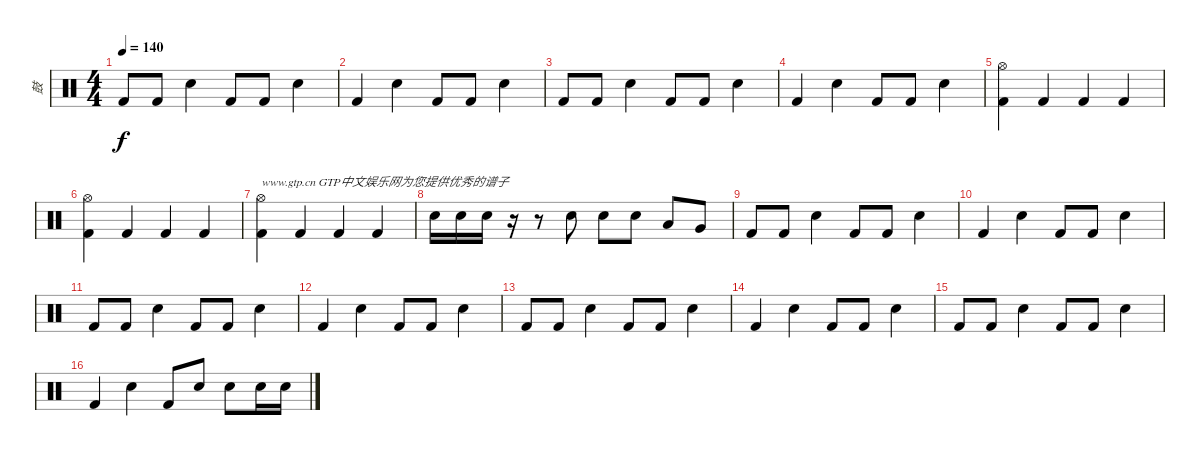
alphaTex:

\track ("鼓" "鼓") {instrument percussion}
\staff {score}
\articulation defaults
\ts (4 4)
\tempo 140
\clef neutral
\ks c "Kick (hit) 2".8{dy f} "Kick (hit) 2".8 "Electric Snare (hit)".4 "Kick (hit) 2".8 "Kick (hit) 2".8 "Electric Snare (hit)".4
|
"Kick (hit) 2".4 "Electric Snare (hit)".4 "Kick (hit) 2".8 "Kick (hit) 2".8 "Electric Snare (hit)".4 |
"Kick (hit) 2".8 "Kick (hit) 2".8 "Electric Snare (hit)".4 "Kick (hit) 2".8 "Kick (hit) 2".8 "Electric Snare (hit)".4 |
"Kick (hit) 2".4 "Electric Snare (hit)".4 "Kick (hit) 2".8 "Kick (hit) 2".8 "Electric Snare (hit)".4 |
("Hi-Hat (open)" "Kick (hit) 2").4 "Kick (hit) 2".4 "Kick (hit) 2".4 "Kick (hit) 2".4 |
("Hi-Hat (open)" "Kick (hit) 2").4 "Kick (hit) 2".4 "Kick (hit) 2".4 "Kick (hit) 2".4 |
("Hi-Hat (open)" "Kick (hit) 2").4{txt "www.gtp.cn GTP中文娱乐网为您提供优秀的谱子"} "Kick (hit) 2".4 "Kick (hit) 2".4 "Kick (hit) 2".4 |
"Electric Snare (hit)".16 "Electric Snare (hit)".16 "Electric Snare (hit)".16 r.16 r.8 "Electric Snare (hit)".8 "Electric Snare (hit)".8 "Snare (hit) 2".8 "Low Tom (hit)".8 "Very Low Tom (hit)".8 |
"Kick (hit) 2".8 "Kick (hit) 2".8 "Electric Snare (hit)".4 "Kick (hit) 2".8 "Kick (hit) 2".8 "Electric Snare (hit)".4 |
"Kick (hit) 2".4 "Electric Snare (hit)".4 "Kick (hit) 2".8 "Kick (hit) 2".8 "Electric Snare (hit)".4 |
"Kick (hit) 2".8 "Kick (hit) 2".8 "Electric Snare (hit)".4 "Kick (hit) 2".8 "Kick (hit) 2".8 "Electric Snare (hit)".4 |
"Kick (hit) 2".4 "Electric Snare (hit)".4 "Kick (hit) 2".8 "Kick (hit) 2".8 "Electric Snare (hit)".4 |
"Kick (hit) 2".8 "Kick (hit) 2".8 "Electric Snare (hit)".4 "Kick (hit) 2".8 "Kick (hit) 2".8 "Electric Snare (hit)".4 |
"Kick (hit) 2".4 "Electric Snare (hit)".4 "Kick (hit) 2".8 "Kick (hit) 2".8 "Electric Snare (hit)".4 |
"Kick (hit) 2".8 "Kick (hit) 2".8 "Electric Snare (hit)".4 "Kick (hit) 2".8 "Kick (hit) 2".8 "Electric Snare (hit)".4 |
"Kick (hit) 2".4 "Electric Snare (hit)".4 "Kick (hit) 2".8 "Electric Snare (hit)".8 "Electric Snare (hit)".8 "Electric Snare (hit)".16 "Electric Snare (hit)".16
